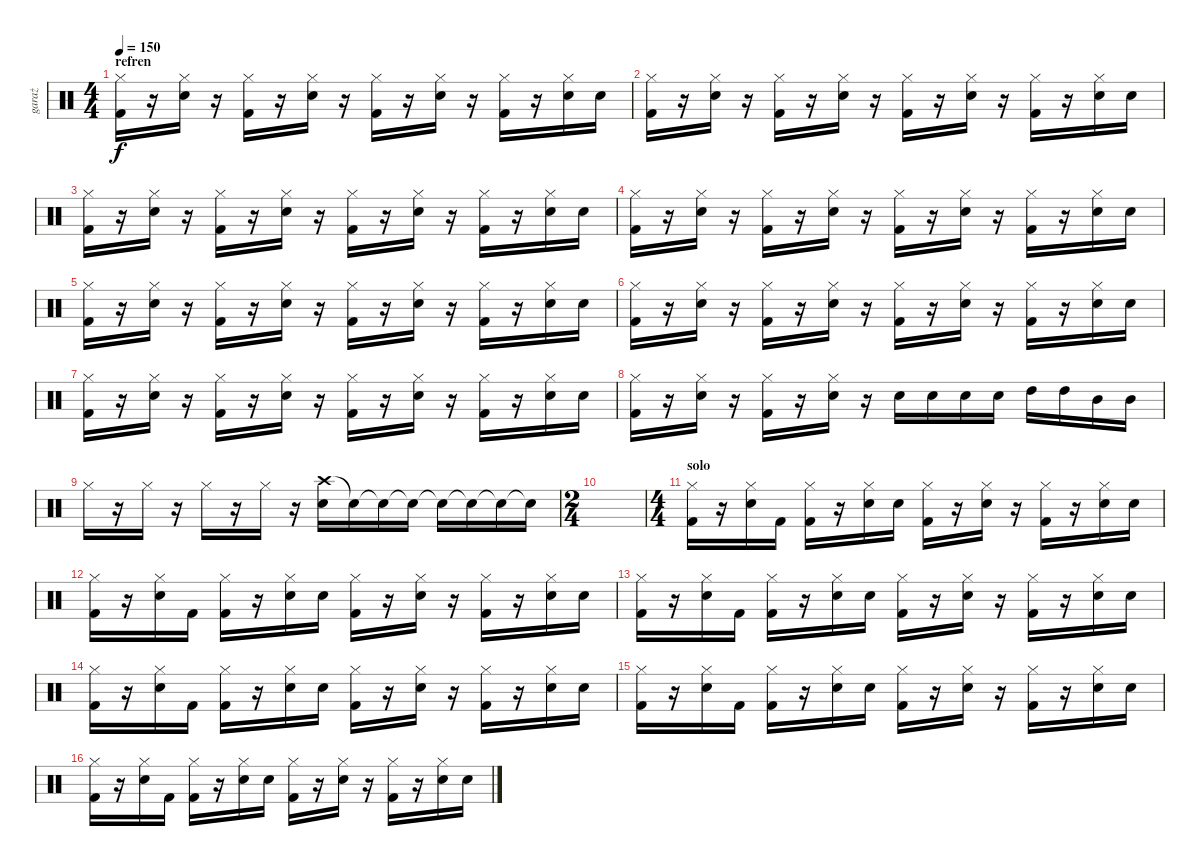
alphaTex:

\track ("garaż" "garaż") {instrument percussion}
\staff {score}
\articulation defaults
\ts (4 4)
\section ("" "refren")
\tempo 150
\clef neutral
\ks c
("Kick (hit) 2" "Hi-Hat (closed)").16{dy f} r.16 ("Snare (hit) 2" "Hi-Hat (closed)").16 r.16 ("Kick (hit) 2" "Hi-Hat (closed)").16 r.16 ("Snare (hit) 2" "Hi-Hat (closed)").16 r.16 ("Kick (hit) 2" "Hi-Hat (closed)").16 r.16 ("Snare (hit) 2" "Hi-Hat (closed)").16 r.16 ("Kick (hit) 2" "Hi-Hat (closed)").16 r.16 ("Snare (hit) 2" "Hi-Hat (closed)").16 "Snare (hit) 2".16 |
("Kick (hit) 2" "Hi-Hat (closed)").16 r.16 ("Snare (hit) 2" "Hi-Hat (closed)").16 r.16 ("Kick (hit) 2" "Hi-Hat (closed)").16 r.16 ("Snare (hit) 2" "Hi-Hat (closed)").16 r.16 ("Kick (hit) 2" "Hi-Hat (closed)").16 r.16 ("Snare (hit) 2" "Hi-Hat (closed)").16 r.16 ("Kick (hit) 2" "Hi-Hat (closed)").16 r.16 ("Snare (hit) 2" "Hi-Hat (closed)").16 "Snare (hit) 2".16 |
("Kick (hit) 2" "Hi-Hat (closed)").16 r.16 ("Snare (hit) 2" "Hi-Hat (closed)").16 r.16 ("Kick (hit) 2" "Hi-Hat (closed)").16 r.16 ("Snare (hit) 2" "Hi-Hat (closed)").16 r.16 ("Kick (hit) 2" "Hi-Hat (closed)").16 r.16 ("Snare (hit) 2" "Hi-Hat (closed)").16 r.16 ("Kick (hit) 2" "Hi-Hat (closed)").16 r.16 ("Snare (hit) 2" "Hi-Hat (closed)").16 "Snare (hit) 2".16 |
("Kick (hit) 2" "Hi-Hat (closed)").16 r.16 ("Snare (hit) 2" "Hi-Hat (closed)").16 r.16 ("Kick (hit) 2" "Hi-Hat (closed)").16 r.16 ("Snare (hit) 2" "Hi-Hat (closed)").16 r.16 ("Kick (hit) 2" "Hi-Hat (closed)").16 r.16 ("Snare (hit) 2" "Hi-Hat (closed)").16 r.16 ("Kick (hit) 2" "Hi-Hat (closed)").16 r.16 ("Snare (hit) 2" "Hi-Hat (closed)").16 "Snare (hit) 2".16 |
("Kick (hit) 2" "Hi-Hat (closed)").16 r.16 ("Snare (hit) 2" "Hi-Hat (closed)").16 r.16 ("Kick (hit) 2" "Hi-Hat (closed)").16 r.16 ("Snare (hit) 2" "Hi-Hat (closed)").16 r.16 ("Kick (hit) 2" "Hi-Hat (closed)").16 r.16 ("Snare (hit) 2" "Hi-Hat (closed)").16 r.16 ("Kick (hit) 2" "Hi-Hat (closed)").16 r.16 ("Snare (hit) 2" "Hi-Hat (closed)").16 "Snare (hit) 2".16 |
("Kick (hit) 2" "Hi-Hat (closed)").16 r.16 ("Snare (hit) 2" "Hi-Hat (closed)").16 r.16 ("Kick (hit) 2" "Hi-Hat (closed)").16 r.16 ("Snare (hit) 2" "Hi-Hat (closed)").16 r.16 ("Kick (hit) 2" "Hi-Hat (closed)").16 r.16 ("Snare (hit) 2" "Hi-Hat (closed)").16 r.16 ("Kick (hit) 2" "Hi-Hat (closed)").16 r.16 ("Snare (hit) 2" "Hi-Hat (closed)").16 "Snare (hit) 2".16 |
("Kick (hit) 2" "Hi-Hat (closed)").16 r.16 ("Snare (hit) 2" "Hi-Hat (closed)").16 r.16 ("Kick (hit) 2" "Hi-Hat (closed)").16 r.16 ("Snare (hit) 2" "Hi-Hat (closed)").16 r.16 ("Kick (hit) 2" "Hi-Hat (closed)").16 r.16 ("Snare (hit) 2" "Hi-Hat (closed)").16 r.16 ("Kick (hit) 2" "Hi-Hat (closed)").16 r.16 ("Snare (hit) 2" "Hi-Hat (closed)").16 "Snare (hit) 2".16 |
("Kick (hit) 2" "Hi-Hat (closed)").16 r.16 ("Snare (hit) 2" "Hi-Hat (closed)").16 r.16 ("Kick (hit) 2" "Hi-Hat (closed)").16 r.16 ("Snare (hit) 2" "Hi-Hat (closed)").16 r.16 "Snare (hit) 2".16 "Snare (hit) 2".16 "Snare (hit) 2".16 "Snare (hit) 2".16 "High Tom (hit)".16 "High Tom (hit)".16 "Mid Tom (hit)".16 "Mid Tom (hit)".16 |
"Hi-Hat (closed)".16 r.16 "Hi-Hat (closed)".16 r.16 "Hi-Hat (closed)".16 r.16 "Hi-Hat (closed)".16 r.16 ("Crash high (hit)" "Snare (hit) 2").16 "Snare (hit)"{t}.16 "Snare (hit)"{t}.16 "Snare (hit)"{t}.16 "Snare (hit)"{t}.16 "Snare (hit)"{t}.16 "Snare (hit)"{t}.16 "Snare (hit)"{t}.16 |
\ts (2 4)
|
\ts (4 4)
\section ("" "solo")
("Kick (hit) 2" "Hi-Hat (closed)").16 r.16 ("Snare (hit) 2" "Hi-Hat (closed)").16 "Kick (hit) 2".16 ("Kick (hit) 2" "Hi-Hat (closed)").16 r.16 ("Snare (hit) 2" "Hi-Hat (closed)").16 "Snare (hit) 2".16 ("Kick (hit) 2" "Hi-Hat (closed)").16 r.16 ("Snare (hit) 2" "Hi-Hat (closed)").16 r.16 ("Kick (hit) 2" "Hi-Hat (closed)").16 r.16 ("Snare (hit) 2" "Hi-Hat (closed)").16 "Snare (hit) 2".16 |
("Kick (hit) 2" "Hi-Hat (closed)").16 r.16 ("Snare (hit) 2" "Hi-Hat (closed)").16 "Kick (hit) 2".16 ("Kick (hit) 2" "Hi-Hat (closed)").16 r.16 ("Snare (hit) 2" "Hi-Hat (closed)").16 "Snare (hit) 2".16 ("Kick (hit) 2" "Hi-Hat (closed)").16 r.16 ("Snare (hit) 2" "Hi-Hat (closed)").16 r.16 ("Kick (hit) 2" "Hi-Hat (closed)").16 r.16 ("Snare (hit) 2" "Hi-Hat (closed)").16 "Snare (hit) 2".16 |
("Kick (hit) 2" "Hi-Hat (closed)").16 r.16 ("Snare (hit) 2" "Hi-Hat (closed)").16 "Kick (hit) 2".16 ("Kick (hit) 2" "Hi-Hat (closed)").16 r.16 ("Snare (hit) 2" "Hi-Hat (closed)").16 "Snare (hit) 2".16 ("Kick (hit) 2" "Hi-Hat (closed)").16 r.16 ("Snare (hit) 2" "Hi-Hat (closed)").16 r.16 ("Kick (hit) 2" "Hi-Hat (closed)").16 r.16 ("Snare (hit) 2" "Hi-Hat (closed)").16 "Snare (hit) 2".16 |
("Kick (hit) 2" "Hi-Hat (closed)").16 r.16 ("Snare (hit) 2" "Hi-Hat (closed)").16 "Kick (hit) 2".16 ("Kick (hit) 2" "Hi-Hat (closed)").16 r.16 ("Snare (hit) 2" "Hi-Hat (closed)").16 "Snare (hit) 2".16 ("Kick (hit) 2" "Hi-Hat (closed)").16 r.16 ("Snare (hit) 2" "Hi-Hat (closed)").16 r.16 ("Kick (hit) 2" "Hi-Hat (closed)").16 r.16 ("Snare (hit) 2" "Hi-Hat (closed)").16 "Snare (hit) 2".16 |
("Kick (hit) 2" "Hi-Hat (closed)").16 r.16 ("Snare (hit) 2" "Hi-Hat (closed)").16 "Kick (hit) 2".16 ("Kick (hit) 2" "Hi-Hat (closed)").16 r.16 ("Snare (hit) 2" "Hi-Hat (closed)").16 "Snare (hit) 2".16 ("Kick (hit) 2" "Hi-Hat (closed)").16 r.16 ("Snare (hit) 2" "Hi-Hat (closed)").16 r.16 ("Kick (hit) 2" "Hi-Hat (closed)").16 r.16 ("Snare (hit) 2" "Hi-Hat (closed)").16 "Snare (hit) 2".16 |
("Kick (hit) 2" "Hi-Hat (closed)").16 r.16 ("Snare (hit) 2" "Hi-Hat (closed)").16 "Kick (hit) 2".16 ("Kick (hit) 2" "Hi-Hat (closed)").16 r.16 ("Snare (hit) 2" "Hi-Hat (closed)").16 "Snare (hit) 2".16 ("Kick (hit) 2" "Hi-Hat (closed)").16 r.16 ("Snare (hit) 2" "Hi-Hat (closed)").16 r.16 ("Kick (hit) 2" "Hi-Hat (closed)").16 r.16 ("Snare (hit) 2" "Hi-Hat (closed)").16 "Snare (hit) 2".16
